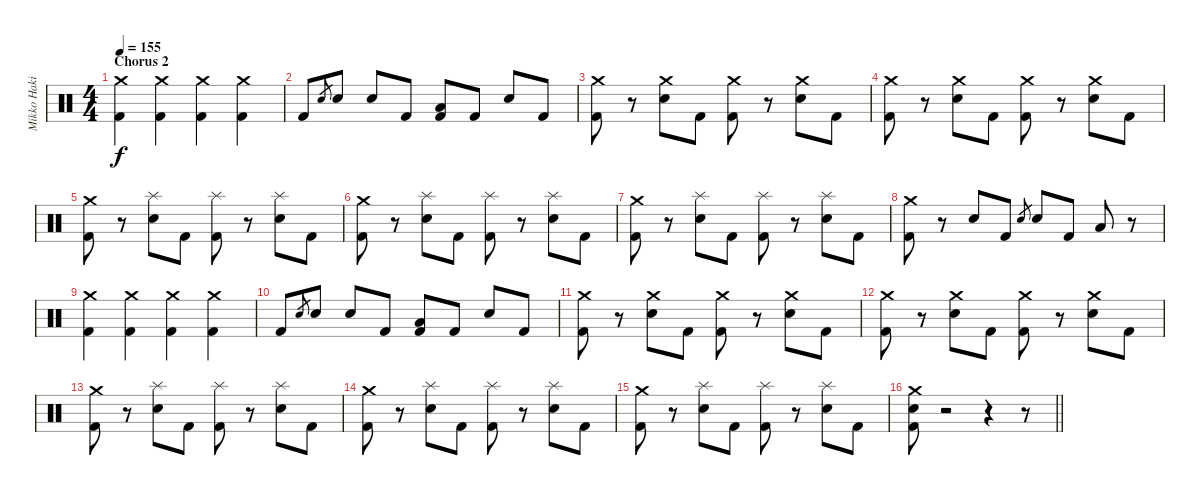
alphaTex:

\track ("Mikko Hakila - Drums" "Mikko Haki") {instrument percussion}
\staff {score}
\articulation defaults
\ts (4 4)
\section ("" "Chorus 2")
\tempo 155
\clef neutral
\ks c
("Crash medium (hit)" "Kick (hit) 2").4{dy f} ("Crash medium (hit)" "Kick (hit) 2").4 ("Crash medium (hit)" "Kick (hit) 2").4 ("Crash medium (hit)" "Kick (hit) 2").4 |
"Kick (hit) 2".8 "Electric Snare (hit)".8{gr} "Electric Snare (hit)".8 "Electric Snare (hit)".8 "Kick (hit) 2".8 ("Low Floor Tom (hit)" "Kick (hit) 2").8 "Kick (hit) 2".8 "Electric Snare (hit)".8 "Kick (hit) 2".8 |
("Crash medium (hit)" "Kick (hit) 2").8 r.8 ("Crash medium (hit)" "Electric Snare (hit)").8 "Kick (hit) 2".8 ("Crash medium (hit)" "Kick (hit) 2").8 r.8 ("Crash medium (hit)" "Electric Snare (hit)").8 "Kick (hit) 2".8 |
("Crash medium (hit)" "Kick (hit) 2").8 r.8 ("Crash medium (hit)" "Electric Snare (hit)").8 "Kick (hit) 2".8 ("Crash medium (hit)" "Kick (hit) 2").8 r.8 ("Crash medium (hit)" "Electric Snare (hit)").8 "Kick (hit) 2".8 |
("Crash medium (hit)" "Kick (hit) 2").8 r.8 ("Splash (hit)" "Electric Snare (hit)").8 "Kick (hit) 2".8 ("Splash (hit)" "Kick (hit) 2").8 r.8 ("Splash (hit)" "Electric Snare (hit)").8 "Kick (hit) 2".8 |
("Crash medium (hit)" "Kick (hit) 2").8 r.8 ("Splash (hit)" "Electric Snare (hit)").8 "Kick (hit) 2".8 ("Splash (hit)" "Kick (hit) 2").8 r.8 ("Splash (hit)" "Electric Snare (hit)").8 "Kick (hit) 2".8 |
("Crash medium (hit)" "Kick (hit) 2").8 r.8 ("Splash (hit)" "Electric Snare (hit)").8 "Kick (hit) 2".8 ("Splash (hit)" "Kick (hit) 2").8 r.8 ("Splash (hit)" "Electric Snare (hit)").8 "Kick (hit) 2".8 |
("Crash medium (hit)" "Kick (hit) 2").8 r.8 "Electric Snare (hit)".8 "Kick (hit) 2".8 "Electric Snare (hit)".8{gr} "Electric Snare (hit)".8 "Kick (hit) 2".8 "Low Floor Tom (hit)".8 r.8 |
("Crash medium (hit)" "Kick (hit) 2").4 ("Crash medium (hit)" "Kick (hit) 2").4 ("Crash medium (hit)" "Kick (hit) 2").4 ("Crash medium (hit)" "Kick (hit) 2").4 |
"Kick (hit) 2".8 "Electric Snare (hit)".8{gr} "Electric Snare (hit)".8 "Electric Snare (hit)".8 "Kick (hit) 2".8 ("Low Floor Tom (hit)" "Kick (hit) 2").8 "Kick (hit) 2".8 "Electric Snare (hit)".8 "Kick (hit) 2".8 |
("Crash medium (hit)" "Kick (hit) 2").8 r.8 ("Crash medium (hit)" "Electric Snare (hit)").8 "Kick (hit) 2".8 ("Crash medium (hit)" "Kick (hit) 2").8 r.8 ("Crash medium (hit)" "Electric Snare (hit)").8 "Kick (hit) 2".8 |
("Crash medium (hit)" "Kick (hit) 2").8 r.8 ("Crash medium (hit)" "Electric Snare (hit)").8 "Kick (hit) 2".8 ("Crash medium (hit)" "Kick (hit) 2").8 r.8 ("Crash medium (hit)" "Electric Snare (hit)").8 "Kick (hit) 2".8 |
("Crash medium (hit)" "Kick (hit) 2").8 r.8 ("Splash (hit)" "Electric Snare (hit)").8 "Kick (hit) 2".8 ("Splash (hit)" "Kick (hit) 2").8 r.8 ("Splash (hit)" "Electric Snare (hit)").8 "Kick (hit) 2".8 |
("Crash medium (hit)" "Kick (hit) 2").8 r.8 ("Splash (hit)" "Electric Snare (hit)").8 "Kick (hit) 2".8 ("Splash (hit)" "Kick (hit) 2").8 r.8 ("Splash (hit)" "Electric Snare (hit)").8 "Kick (hit) 2".8 |
("Crash medium (hit)" "Kick (hit) 2").8 r.8 ("Splash (hit)" "Electric Snare (hit)").8 "Kick (hit) 2".8 ("Splash (hit)" "Kick (hit) 2").8 r.8 ("Splash (hit)" "Electric Snare (hit)").8 "Kick (hit) 2".8 |
\barLineRight lightlight
("Crash medium (hit)" "Electric Snare (hit)" "Kick (hit) 2").8 r.2 r.4 r.8
